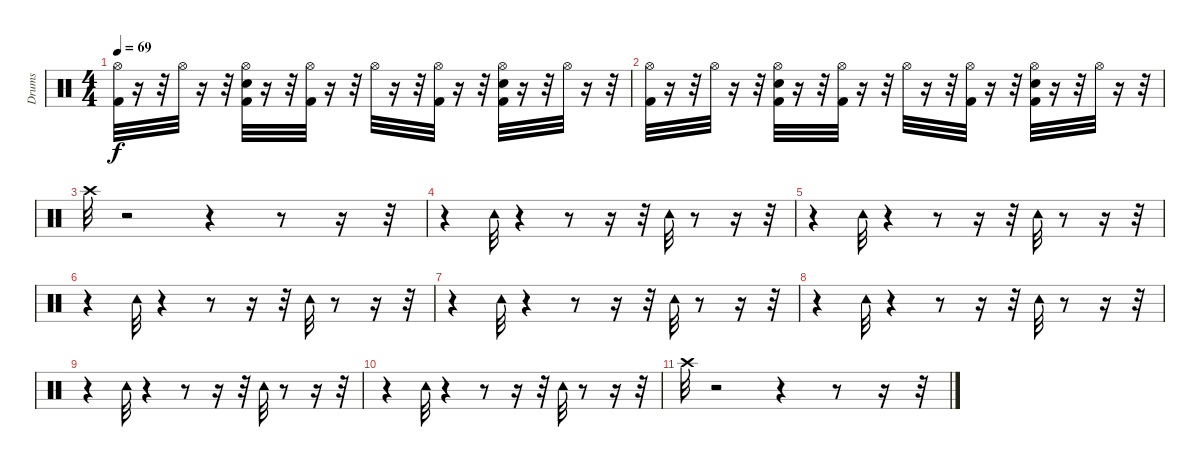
\track ("Drums" "Drums") {instrument percussion}
\staff {score}
\articulation defaults
\ts (4 4)
\tempo 69
\clef neutral
\ks c
("Hi-Hat (open)" "Kick (hit) 2").32{dy f} r.16 r.32 "Hi-Hat (open)".32 r.16 r.32 ("Electric Snare (hit)" "Hi-Hat (open)" "Kick (hit) 2").32 r.16 r.32 ("Kick (hit) 2" "Hi-Hat (open)").32 r.16 r.32 "Hi-Hat (open)".32 r.16 r.32 ("Kick (hit) 2" "Hi-Hat (open)").32 r.16 r.32 ("Electric Snare (hit)" "Kick (hit) 2" "Hi-Hat (open)").32 r.16 r.32 "Hi-Hat (open)".32 r.16 r.32 |
("Hi-Hat (open)" "Kick (hit) 2").32 r.16 r.32 "Hi-Hat (open)".32 r.16 r.32 ("Electric Snare (hit)" "Hi-Hat (open)" "Kick (hit) 2").32 r.16 r.32 ("Kick (hit) 2" "Hi-Hat (open)").32 r.16 r.32 "Hi-Hat (open)".32 r.16 r.32 ("Kick (hit) 2" "Hi-Hat (open)").32 r.16 r.32 ("Electric Snare (hit)" "Kick (hit) 2" "Hi-Hat (open)").32 r.16 r.32 "Hi-Hat (open)".32 r.16 r.32 |
"Crash high (hit)".32 r.2 r.4 r.8 r.16 r.32 |
r.4 "Tambourine (hit)".32 r.4 r.8 r.16 r.32 "Tambourine (hit)".32 r.8 r.16 r.32 |
r.4 "Tambourine (hit)".32 r.4 r.8 r.16 r.32 "Tambourine (hit)".32 r.8 r.16 r.32 |
r.4 "Tambourine (hit)".32 r.4 r.8 r.16 r.32 "Tambourine (hit)".32 r.8 r.16 r.32 |
r.4 "Tambourine (hit)".32 r.4 r.8 r.16 r.32 "Tambourine (hit)".32 r.8 r.16 r.32 |
r.4 "Tambourine (hit)".32 r.4 r.8 r.16 r.32 "Tambourine (hit)".32 r.8 r.16 r.32 |
r.4 "Tambourine (hit)".32 r.4 r.8 r.16 r.32 "Tambourine (hit)".32 r.8 r.16 r.32 |
r.4 "Tambourine (hit)".32 r.4 r.8 r.16 r.32 "Tambourine (hit)".32 r.8 r.16 r.32 |
"Crash high (hit)".32 r.2 r.4 r.8 r.16 r.32
